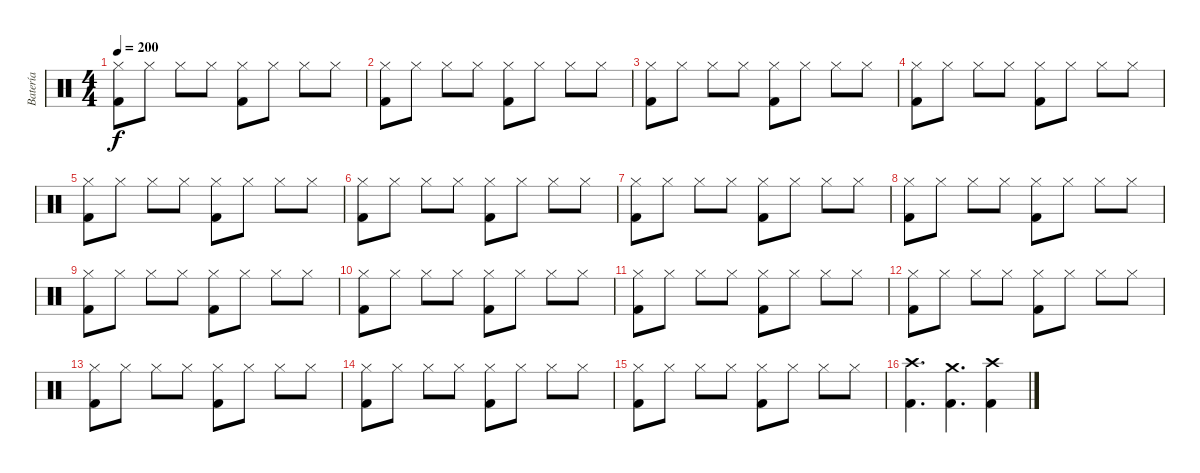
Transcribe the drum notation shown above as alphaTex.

\track ("Batería" "Batería") {instrument percussion}
\staff {score}
\articulation defaults
\ts (4 4)
\tempo 200
\clef neutral
\ks c
("Kick (hit) 2" "Hi-Hat (closed)").8{dy f} "Hi-Hat (closed)".8 "Hi-Hat (closed)".8 "Hi-Hat (closed)".8 ("Kick (hit) 2" "Hi-Hat (closed)").8 "Hi-Hat (closed)".8 "Hi-Hat (closed)".8 "Hi-Hat (closed)".8 |
("Kick (hit) 2" "Hi-Hat (closed)").8 "Hi-Hat (closed)".8 "Hi-Hat (closed)".8 "Hi-Hat (closed)".8 ("Kick (hit) 2" "Hi-Hat (closed)").8 "Hi-Hat (closed)".8 "Hi-Hat (closed)".8 "Hi-Hat (closed)".8 |
("Kick (hit) 2" "Hi-Hat (closed)").8 "Hi-Hat (closed)".8 "Hi-Hat (closed)".8 "Hi-Hat (closed)".8 ("Kick (hit) 2" "Hi-Hat (closed)").8 "Hi-Hat (closed)".8 "Hi-Hat (closed)".8 "Hi-Hat (closed)".8 |
("Kick (hit) 2" "Hi-Hat (closed)").8 "Hi-Hat (closed)".8 "Hi-Hat (closed)".8 "Hi-Hat (closed)".8 ("Kick (hit) 2" "Hi-Hat (closed)").8 "Hi-Hat (closed)".8 "Hi-Hat (closed)".8 "Hi-Hat (closed)".8 |
("Kick (hit) 2" "Hi-Hat (closed)").8 "Hi-Hat (closed)".8 "Hi-Hat (closed)".8 "Hi-Hat (closed)".8 ("Kick (hit) 2" "Hi-Hat (closed)").8 "Hi-Hat (closed)".8 "Hi-Hat (closed)".8 "Hi-Hat (closed)".8 |
("Kick (hit) 2" "Hi-Hat (closed)").8 "Hi-Hat (closed)".8 "Hi-Hat (closed)".8 "Hi-Hat (closed)".8 ("Kick (hit) 2" "Hi-Hat (closed)").8 "Hi-Hat (closed)".8 "Hi-Hat (closed)".8 "Hi-Hat (closed)".8 |
("Kick (hit) 2" "Hi-Hat (closed)").8 "Hi-Hat (closed)".8 "Hi-Hat (closed)".8 "Hi-Hat (closed)".8 ("Kick (hit) 2" "Hi-Hat (closed)").8 "Hi-Hat (closed)".8 "Hi-Hat (closed)".8 "Hi-Hat (closed)".8 |
("Kick (hit) 2" "Hi-Hat (closed)").8 "Hi-Hat (closed)".8 "Hi-Hat (closed)".8 "Hi-Hat (closed)".8 ("Kick (hit) 2" "Hi-Hat (closed)").8 "Hi-Hat (closed)".8 "Hi-Hat (closed)".8 "Hi-Hat (closed)".8 |
("Kick (hit) 2" "Hi-Hat (closed)").8 "Hi-Hat (closed)".8 "Hi-Hat (closed)".8 "Hi-Hat (closed)".8 ("Kick (hit) 2" "Hi-Hat (closed)").8 "Hi-Hat (closed)".8 "Hi-Hat (closed)".8 "Hi-Hat (closed)".8 |
("Kick (hit) 2" "Hi-Hat (closed)").8 "Hi-Hat (closed)".8 "Hi-Hat (closed)".8 "Hi-Hat (closed)".8 ("Kick (hit) 2" "Hi-Hat (closed)").8 "Hi-Hat (closed)".8 "Hi-Hat (closed)".8 "Hi-Hat (closed)".8 |
("Kick (hit) 2" "Hi-Hat (closed)").8 "Hi-Hat (closed)".8 "Hi-Hat (closed)".8 "Hi-Hat (closed)".8 ("Kick (hit) 2" "Hi-Hat (closed)").8 "Hi-Hat (closed)".8 "Hi-Hat (closed)".8 "Hi-Hat (closed)".8 |
("Kick (hit) 2" "Hi-Hat (closed)").8 "Hi-Hat (closed)".8 "Hi-Hat (closed)".8 "Hi-Hat (closed)".8 ("Kick (hit) 2" "Hi-Hat (closed)").8 "Hi-Hat (closed)".8 "Hi-Hat (closed)".8 "Hi-Hat (closed)".8 |
("Kick (hit) 2" "Hi-Hat (closed)").8 "Hi-Hat (closed)".8 "Hi-Hat (closed)".8 "Hi-Hat (closed)".8 ("Kick (hit) 2" "Hi-Hat (closed)").8 "Hi-Hat (closed)".8 "Hi-Hat (closed)".8 "Hi-Hat (closed)".8 |
("Kick (hit) 2" "Hi-Hat (closed)").8 "Hi-Hat (closed)".8 "Hi-Hat (closed)".8 "Hi-Hat (closed)".8 ("Kick (hit) 2" "Hi-Hat (closed)").8 "Hi-Hat (closed)".8 "Hi-Hat (closed)".8 "Hi-Hat (closed)".8 |
("Kick (hit) 2" "Hi-Hat (closed)").8 "Hi-Hat (closed)".8 "Hi-Hat (closed)".8 "Hi-Hat (closed)".8 ("Kick (hit) 2" "Hi-Hat (closed)").8 "Hi-Hat (closed)".8 "Hi-Hat (closed)".8 "Hi-Hat (closed)".8 |
("Kick (hit) 2" "Crash high (hit)").4{d} ("Kick (hit) 2" "Crash medium (hit)").4{d} ("Kick (hit) 2" "Crash high (hit)").4
